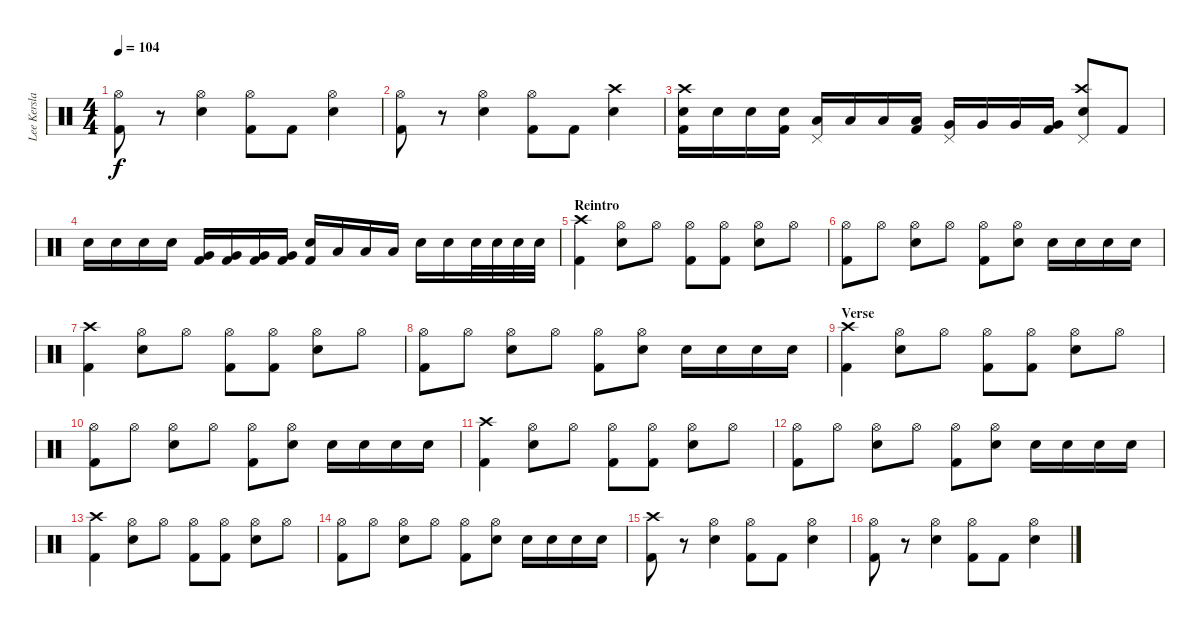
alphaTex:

\track ("Lee Kerslake" "Lee Kersla") {instrument percussion}
\staff {score}
\articulation defaults
\ts (4 4)
\tempo 104
\clef neutral
\ks c
("Hi-Hat (open)" "Kick (hit) 2").8{dy f} r.8 ("Hi-Hat (open)" "Electric Snare (hit)").4 ("Hi-Hat (open)" "Kick (hit) 2").8 "Kick (hit) 2".8 ("Hi-Hat (open)" "Electric Snare (hit)").4 |
("Hi-Hat (open)" "Kick (hit) 2").8 r.8 ("Hi-Hat (open)" "Electric Snare (hit)").4 ("Hi-Hat (open)" "Kick (hit) 2").8 "Kick (hit) 2".8 ("Crash high (hit)" "Electric Snare (hit)").4 |
("Crash high (hit)" "Electric Snare (hit)" "Kick (hit) 2").16 "Electric Snare (hit)".16 "Electric Snare (hit)".16 ("Electric Snare (hit)" "Kick (hit) 2").16 ("Low Tom (hit)" "Pedal Hi-Hat (hit)").16 "Low Tom (hit)".16 "Low Tom (hit)".16 ("Low Tom (hit)" "Kick (hit) 2").16 ("Very Low Tom (hit)" "Pedal Hi-Hat (hit)").16 "Very Low Tom (hit)".16 "Very Low Tom (hit)".16 ("Very Low Tom (hit)" "Kick (hit) 2").16 ("Crash high (hit)" "Electric Snare (hit)" "Pedal Hi-Hat (hit)").8 "Kick (hit) 2".8 |
"Electric Snare (hit)".16 "Electric Snare (hit)".16 "Electric Snare (hit)".16 "Electric Snare (hit)".16 ("Very Low Tom (hit)" "Kick (hit) 2").16 ("Very Low Tom (hit)" "Kick (hit) 2").16 ("Very Low Tom (hit)" "Kick (hit) 2").16 ("Very Low Tom (hit)" "Kick (hit) 2").16 ("Electric Snare (hit)" "Kick (hit) 2").16 "Low Floor Tom (hit)".16 "Low Floor Tom (hit)".16 "Low Floor Tom (hit)".16 "Electric Snare (hit)".16 "Electric Snare (hit)".16 "Electric Snare (hit)".32 "Electric Snare (hit)".32 "Electric Snare (hit)".32 "Electric Snare (hit)".32 |
\section ("" "Reintro")
("Crash high (hit)" "Kick (hit) 2").4 ("Hi-Hat (open)" "Electric Snare (hit)").8 "Hi-Hat (open)".8 ("Hi-Hat (open)" "Kick (hit) 2").8 ("Hi-Hat (open)" "Kick (hit) 2").8 ("Hi-Hat (open)" "Electric Snare (hit)").8 "Hi-Hat (open)".8 |
("Hi-Hat (open)" "Kick (hit) 2").8 "Hi-Hat (open)".8 ("Hi-Hat (open)" "Electric Snare (hit)").8 "Hi-Hat (open)".8 ("Hi-Hat (open)" "Kick (hit) 2").8 ("Hi-Hat (open)" "Electric Snare (hit)").8 "Electric Snare (hit)".16 "Electric Snare (hit)".16 "Electric Snare (hit)".16 "Electric Snare (hit)".16 |
("Crash high (hit)" "Kick (hit) 2").4 ("Hi-Hat (open)" "Electric Snare (hit)").8 "Hi-Hat (open)".8 ("Hi-Hat (open)" "Kick (hit) 2").8 ("Hi-Hat (open)" "Kick (hit) 2").8 ("Hi-Hat (open)" "Electric Snare (hit)").8 "Hi-Hat (open)".8 |
("Hi-Hat (open)" "Kick (hit) 2").8 "Hi-Hat (open)".8 ("Hi-Hat (open)" "Electric Snare (hit)").8 "Hi-Hat (open)".8 ("Hi-Hat (open)" "Kick (hit) 2").8 ("Hi-Hat (open)" "Electric Snare (hit)").8 "Electric Snare (hit)".16 "Electric Snare (hit)".16 "Electric Snare (hit)".16 "Electric Snare (hit)".16 |
\section ("" "Verse")
("Crash high (hit)" "Kick (hit) 2").4 ("Hi-Hat (open)" "Electric Snare (hit)").8 "Hi-Hat (open)".8 ("Hi-Hat (open)" "Kick (hit) 2").8 ("Hi-Hat (open)" "Kick (hit) 2").8 ("Hi-Hat (open)" "Electric Snare (hit)").8 "Hi-Hat (open)".8 |
("Hi-Hat (open)" "Kick (hit) 2").8 "Hi-Hat (open)".8 ("Hi-Hat (open)" "Electric Snare (hit)").8 "Hi-Hat (open)".8 ("Hi-Hat (open)" "Kick (hit) 2").8 ("Hi-Hat (open)" "Electric Snare (hit)").8 "Electric Snare (hit)".16 "Electric Snare (hit)".16 "Electric Snare (hit)".16 "Electric Snare (hit)".16 |
("Crash high (hit)" "Kick (hit) 2").4 ("Hi-Hat (open)" "Electric Snare (hit)").8 "Hi-Hat (open)".8 ("Hi-Hat (open)" "Kick (hit) 2").8 ("Hi-Hat (open)" "Kick (hit) 2").8 ("Hi-Hat (open)" "Electric Snare (hit)").8 "Hi-Hat (open)".8 |
("Hi-Hat (open)" "Kick (hit) 2").8 "Hi-Hat (open)".8 ("Hi-Hat (open)" "Electric Snare (hit)").8 "Hi-Hat (open)".8 ("Hi-Hat (open)" "Kick (hit) 2").8 ("Hi-Hat (open)" "Electric Snare (hit)").8 "Electric Snare (hit)".16 "Electric Snare (hit)".16 "Electric Snare (hit)".16 "Electric Snare (hit)".16 |
("Crash high (hit)" "Kick (hit) 2").4 ("Hi-Hat (open)" "Electric Snare (hit)").8 "Hi-Hat (open)".8 ("Hi-Hat (open)" "Kick (hit) 2").8 ("Hi-Hat (open)" "Kick (hit) 2").8 ("Hi-Hat (open)" "Electric Snare (hit)").8 "Hi-Hat (open)".8 |
("Hi-Hat (open)" "Kick (hit) 2").8 "Hi-Hat (open)".8 ("Hi-Hat (open)" "Electric Snare (hit)").8 "Hi-Hat (open)".8 ("Hi-Hat (open)" "Kick (hit) 2").8 ("Hi-Hat (open)" "Electric Snare (hit)").8 "Electric Snare (hit)".16 "Electric Snare (hit)".16 "Electric Snare (hit)".16 "Electric Snare (hit)".16 |
("Crash high (hit)" "Kick (hit) 2").8 r.8 ("Hi-Hat (open)" "Electric Snare (hit)").4 ("Hi-Hat (open)" "Kick (hit) 2").8 "Kick (hit) 2".8 ("Hi-Hat (open)" "Electric Snare (hit)").4 |
("Hi-Hat (open)" "Kick (hit) 2").8 r.8 ("Hi-Hat (open)" "Electric Snare (hit)").4 ("Hi-Hat (open)" "Kick (hit) 2").8 "Kick (hit) 2".8 ("Hi-Hat (open)" "Electric Snare (hit)").4
